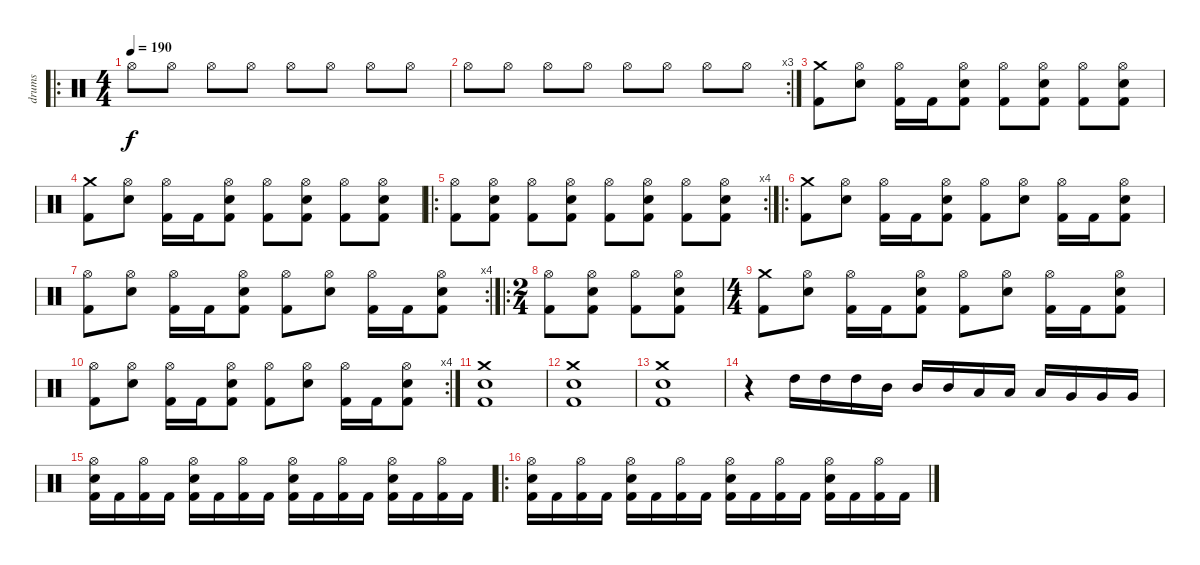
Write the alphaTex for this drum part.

\track ("drums" "drums") {instrument percussion}
\staff {score}
\articulation defaults
\ro
\ts (4 4)
\tempo 190
\clef neutral
\ks c "Hi-Hat (open)".8{dy f} "Hi-Hat (open)".8 "Hi-Hat (open)".8 "Hi-Hat (open)".8 "Hi-Hat (open)".8 "Hi-Hat (open)".8 "Hi-Hat (open)".8 "Hi-Hat (open)".8
|
\rc 3 "Hi-Hat (open)".8 "Hi-Hat (open)".8 "Hi-Hat (open)".8 "Hi-Hat (open)".8 "Hi-Hat (open)".8 "Hi-Hat (open)".8 "Hi-Hat (open)".8 "Hi-Hat (open)".8
|
("Crash medium (hit)" "Kick (hit) 2").8 ("Hi-Hat (open)" "Snare (hit) 2").8 ("Hi-Hat (open)" "Kick (hit) 2").16 "Kick (hit) 2".16 ("Hi-Hat (open)" "Snare (hit) 2" "Kick (hit) 2").8 ("Hi-Hat (open)" "Kick (hit) 2").8 ("Hi-Hat (open)" "Snare (hit) 2" "Kick (hit) 2").8 ("Hi-Hat (open)" "Kick (hit) 2").8 ("Hi-Hat (open)" "Snare (hit) 2" "Kick (hit) 2").8 |
("Crash medium (hit)" "Kick (hit) 2").8 ("Hi-Hat (open)" "Snare (hit) 2").8 ("Hi-Hat (open)" "Kick (hit) 2").16 "Kick (hit) 2".16 ("Hi-Hat (open)" "Snare (hit) 2" "Kick (hit) 2").8 ("Hi-Hat (open)" "Kick (hit) 2").8 ("Hi-Hat (open)" "Snare (hit) 2" "Kick (hit) 2").8 ("Hi-Hat (open)" "Kick (hit) 2").8 ("Hi-Hat (open)" "Snare (hit) 2" "Kick (hit) 2").8 |
\ro
\rc 4
("Hi-Hat (open)" "Kick (hit) 2").8 ("Hi-Hat (open)" "Snare (hit) 2" "Kick (hit) 2").8 ("Hi-Hat (open)" "Kick (hit) 2").8 ("Hi-Hat (open)" "Snare (hit) 2" "Kick (hit) 2").8 ("Hi-Hat (open)" "Kick (hit) 2").8 ("Hi-Hat (open)" "Snare (hit) 2" "Kick (hit) 2").8 ("Hi-Hat (open)" "Kick (hit) 2").8 ("Hi-Hat (open)" "Snare (hit) 2" "Kick (hit) 2").8 |
\ro
("Crash medium (hit)" "Kick (hit) 2").8 ("Hi-Hat (open)" "Snare (hit) 2").8 ("Hi-Hat (open)" "Kick (hit) 2").16 "Kick (hit) 2".16 ("Hi-Hat (open)" "Snare (hit) 2" "Kick (hit) 2").8 ("Hi-Hat (open)" "Kick (hit) 2").8 ("Hi-Hat (open)" "Snare (hit) 2").8 ("Hi-Hat (open)" "Kick (hit) 2").16 "Kick (hit) 2".16 ("Hi-Hat (open)" "Snare (hit) 2" "Kick (hit) 2").8 |
\rc 4
("Hi-Hat (open)" "Kick (hit) 2").8 ("Hi-Hat (open)" "Snare (hit) 2").8 ("Hi-Hat (open)" "Kick (hit) 2").16 "Kick (hit) 2".16 ("Hi-Hat (open)" "Snare (hit) 2" "Kick (hit) 2").8 ("Hi-Hat (open)" "Kick (hit) 2").8 ("Hi-Hat (open)" "Snare (hit) 2").8 ("Hi-Hat (open)" "Kick (hit) 2").16 "Kick (hit) 2".16 ("Hi-Hat (open)" "Snare (hit) 2" "Kick (hit) 2").8 |
\ro
\ts (2 4)
("Hi-Hat (open)" "Kick (hit) 2").8 ("Hi-Hat (open)" "Snare (hit) 2" "Kick (hit) 2").8 ("Hi-Hat (open)" "Kick (hit) 2").8 ("Hi-Hat (open)" "Snare (hit) 2" "Kick (hit) 2").8 |
\ts (4 4)
("Crash medium (hit)" "Kick (hit) 2").8 ("Hi-Hat (open)" "Snare (hit) 2").8 ("Hi-Hat (open)" "Kick (hit) 2").16 "Kick (hit) 2".16 ("Hi-Hat (open)" "Snare (hit) 2" "Kick (hit) 2").8 ("Hi-Hat (open)" "Kick (hit) 2").8 ("Hi-Hat (open)" "Snare (hit) 2").8 ("Hi-Hat (open)" "Kick (hit) 2").16 "Kick (hit) 2".16 ("Hi-Hat (open)" "Snare (hit) 2" "Kick (hit) 2").8 |
\rc 4
("Hi-Hat (open)" "Kick (hit) 2").8 ("Hi-Hat (open)" "Snare (hit) 2").8 ("Hi-Hat (open)" "Kick (hit) 2").16 "Kick (hit) 2".16 ("Hi-Hat (open)" "Snare (hit) 2" "Kick (hit) 2").8 ("Hi-Hat (open)" "Kick (hit) 2").8 ("Hi-Hat (open)" "Snare (hit) 2").8 ("Hi-Hat (open)" "Kick (hit) 2").16 "Kick (hit) 2".16 ("Hi-Hat (open)" "Snare (hit) 2" "Kick (hit) 2").8 |
("Snare (hit) 2" "Crash medium (hit)" "Kick (hit) 2").1 |
("Snare (hit) 2" "Crash medium (hit)" "Kick (hit) 2").1 |
("Snare (hit) 2" "Crash medium (hit)" "Kick (hit) 2").1 |
r.4 "High Tom (hit)".16 "High Tom (hit)".16 "High Tom (hit)".16 "Mid Tom (hit)".16 "Mid Tom (hit)".16 "Mid Tom (hit)".16 "Low Tom (hit)".16 "Low Tom (hit)".16 "Low Tom (hit)".16 "Very Low Tom (hit)".16 "Very Low Tom (hit)".16 "Very Low Tom (hit)".16 |
("Hi-Hat (open)" "Snare (hit) 2" "Kick (hit) 2").16 "Kick (hit) 2".16 ("Hi-Hat (open)" "Kick (hit) 2").16 "Kick (hit) 2".16 ("Hi-Hat (open)" "Snare (hit) 2" "Kick (hit) 2").16 "Kick (hit) 2".16 ("Hi-Hat (open)" "Kick (hit) 2").16 "Kick (hit) 2".16 ("Hi-Hat (open)" "Snare (hit) 2" "Kick (hit) 2").16 "Kick (hit) 2".16 ("Hi-Hat (open)" "Kick (hit) 2").16 "Kick (hit) 2".16 ("Hi-Hat (open)" "Snare (hit) 2" "Kick (hit) 2").16 "Kick (hit) 2".16 ("Hi-Hat (open)" "Kick (hit) 2").16 "Kick (hit) 2".16 |
\ro
("Hi-Hat (open)" "Snare (hit) 2" "Kick (hit) 2").16 "Kick (hit) 2".16 ("Hi-Hat (open)" "Kick (hit) 2").16 "Kick (hit) 2".16 ("Hi-Hat (open)" "Snare (hit) 2" "Kick (hit) 2").16 "Kick (hit) 2".16 ("Hi-Hat (open)" "Kick (hit) 2").16 "Kick (hit) 2".16 ("Hi-Hat (open)" "Snare (hit) 2" "Kick (hit) 2").16 "Kick (hit) 2".16 ("Hi-Hat (open)" "Kick (hit) 2").16 "Kick (hit) 2".16 ("Hi-Hat (open)" "Snare (hit) 2" "Kick (hit) 2").16 "Kick (hit) 2".16 ("Hi-Hat (open)" "Kick (hit) 2").16 "Kick (hit) 2".16
